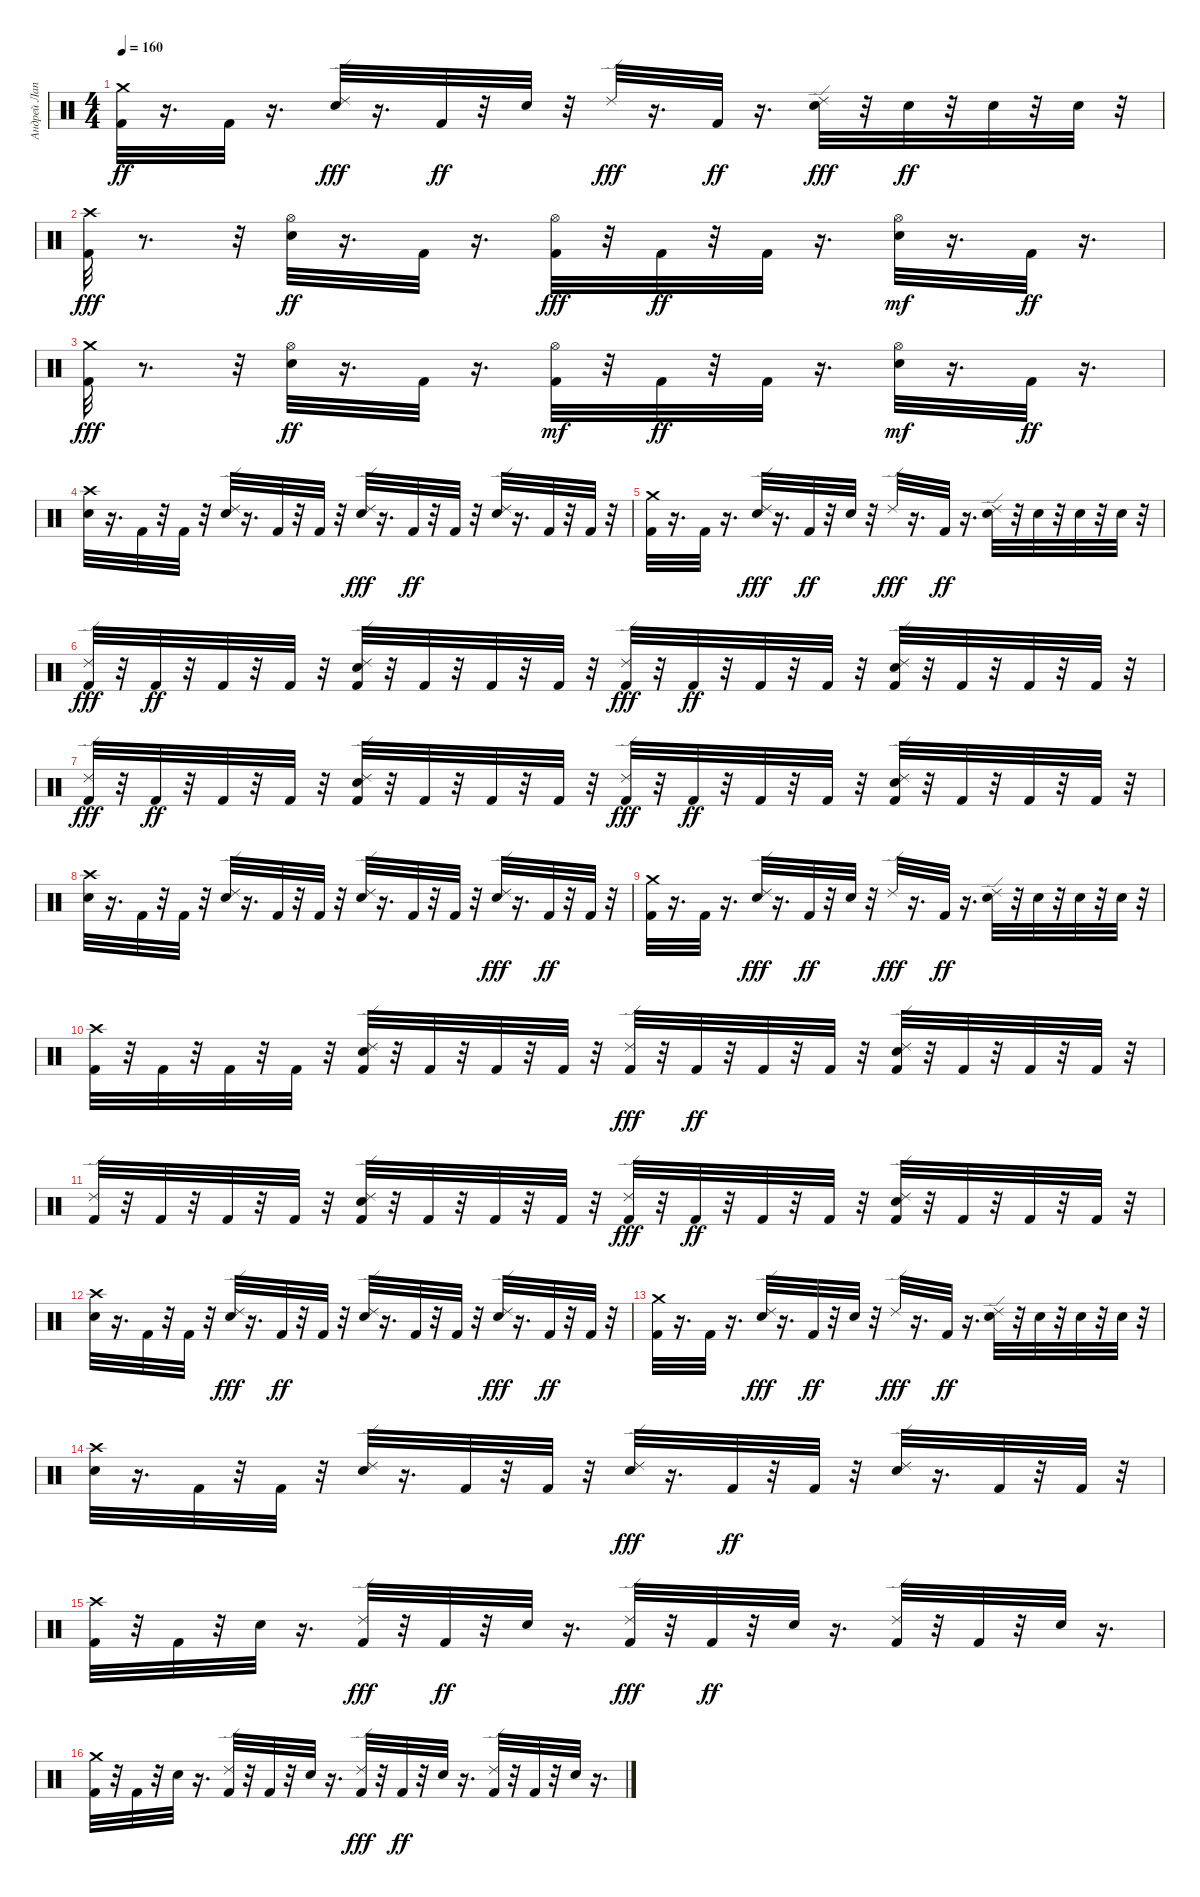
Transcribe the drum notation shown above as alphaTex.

\track ("Андрей Лаптев" "Андрей Лап") {instrument percussion}
\staff {score}
\articulation defaults
\ts (4 4)
\tempo 160
\clef neutral
\ks c
("Kick (hit) 2" "Crash medium (hit)").32{dy ff} r.16{d} "Kick (hit) 2".32 r.16{d} ("Electric Snare (hit)" "Ride (edge) 2").32{dy fff} r.16{d} "Kick (hit) 2".32{dy ff} r.32 "Electric Snare (hit)".32 r.32 "Ride (edge) 2".32{dy fff} r.16{d} "Kick (hit) 2".32{dy ff} r.16{d} ("Electric Snare (hit)" "Ride (edge) 2").32{dy fff} r.32 "Electric Snare (hit)".32{dy ff} r.32 "Electric Snare (hit)".32 r.32 "Electric Snare (hit)".32 r.32 |
("Crash high (hit)" "Kick (hit) 2").32{dy fff} r.8{d} r.32 ("Hi-Hat (open)" "Electric Snare (hit)").32{dy ff} r.16{d} "Kick (hit) 2".32 r.16{d} ("Hi-Hat (open)" "Kick (hit) 2").32{dy fff} r.32 "Kick (hit) 2".32{dy ff} r.32 "Kick (hit) 2".32 r.16{d} ("Electric Snare (hit)" "Hi-Hat (open)").32{dy mf} r.16{d} "Kick (hit) 2".32{dy ff} r.16{d} |
("Kick (hit) 2" "Crash medium (hit)").32{dy fff} r.8{d} r.32 ("Hi-Hat (open)" "Electric Snare (hit)").32{dy ff} r.16{d} "Kick (hit) 2".32 r.16{d} ("Kick (hit) 2" "Hi-Hat (open)").32{dy mf} r.32 "Kick (hit) 2".32{dy ff} r.32 "Kick (hit) 2".32 r.16{d} ("Electric Snare (hit)" "Hi-Hat (open)").32{dy mf} r.16{d} "Kick (hit) 2".32{dy ff} r.16{d} |
("Crash high (hit)" "Electric Snare (hit)").32 r.16{d} "Kick (hit) 2".32 r.32 "Kick (hit) 2".32 r.32 ("Ride (edge) 2" "Electric Snare (hit)").32 r.16{d} "Kick (hit) 2".32 r.32 "Kick (hit) 2".32 r.32 ("Electric Snare (hit)" "Ride (edge) 2").32{dy fff} r.16{d} "Kick (hit) 2".32{dy ff} r.32 "Kick (hit) 2".32 r.32 ("Ride (edge) 2" "Electric Snare (hit)").32 r.16{d} "Kick (hit) 2".32 r.32 "Kick (hit) 2".32 r.32 |
("Kick (hit) 2" "Crash medium (hit)").32 r.16{d} "Kick (hit) 2".32 r.16{d} ("Electric Snare (hit)" "Ride (edge) 2").32{dy fff} r.16{d} "Kick (hit) 2".32{dy ff} r.32 "Electric Snare (hit)".32 r.32 "Ride (edge) 2".32{dy fff} r.16{d} "Kick (hit) 2".32{dy ff} r.16{d} ("Ride (edge) 2" "Electric Snare (hit)").32 r.32 "Electric Snare (hit)".32 r.32 "Electric Snare (hit)".32 r.32 "Electric Snare (hit)".32 r.32 |
("Kick (hit) 2" "Ride (edge) 2").32{dy fff} r.32 "Kick (hit) 2".32{dy ff} r.32 "Kick (hit) 2".32 r.32 "Kick (hit) 2".32 r.32 ("Ride (edge) 2" "Electric Snare (hit)" "Kick (hit) 2").32 r.32 "Kick (hit) 2".32 r.32 "Kick (hit) 2".32 r.32 "Kick (hit) 2".32 r.32 ("Kick (hit) 2" "Ride (edge) 2").32{dy fff} r.32 "Kick (hit) 2".32{dy ff} r.32 "Kick (hit) 2".32 r.32 "Kick (hit) 2".32 r.32 ("Electric Snare (hit)" "Ride (edge) 2" "Kick (hit) 2").32 r.32 "Kick (hit) 2".32 r.32 "Kick (hit) 2".32 r.32 "Kick (hit) 2".32 r.32 |
("Kick (hit) 2" "Ride (edge) 2").32{dy fff} r.32 "Kick (hit) 2".32{dy ff} r.32 "Kick (hit) 2".32 r.32 "Kick (hit) 2".32 r.32 ("Electric Snare (hit)" "Ride (edge) 2" "Kick (hit) 2").32 r.32 "Kick (hit) 2".32 r.32 "Kick (hit) 2".32 r.32 "Kick (hit) 2".32 r.32 ("Kick (hit) 2" "Ride (edge) 2").32{dy fff} r.32 "Kick (hit) 2".32{dy ff} r.32 "Kick (hit) 2".32 r.32 "Kick (hit) 2".32 r.32 ("Electric Snare (hit)" "Ride (edge) 2" "Kick (hit) 2").32 r.32 "Kick (hit) 2".32 r.32 "Kick (hit) 2".32 r.32 "Kick (hit) 2".32 r.32 |
("Crash high (hit)" "Electric Snare (hit)").32 r.16{d} "Kick (hit) 2".32 r.32 "Kick (hit) 2".32 r.32 ("Ride (edge) 2" "Electric Snare (hit)").32 r.16{d} "Kick (hit) 2".32 r.32 "Kick (hit) 2".32 r.32 ("Ride (edge) 2" "Electric Snare (hit)").32 r.16{d} "Kick (hit) 2".32 r.32 "Kick (hit) 2".32 r.32 ("Electric Snare (hit)" "Ride (edge) 2").32{dy fff} r.16{d} "Kick (hit) 2".32{dy ff} r.32 "Kick (hit) 2".32 r.32 |
("Kick (hit) 2" "Crash medium (hit)").32 r.16{d} "Kick (hit) 2".32 r.16{d} ("Electric Snare (hit)" "Ride (edge) 2").32{dy fff} r.16{d} "Kick (hit) 2".32{dy ff} r.32 "Electric Snare (hit)".32 r.32 "Ride (edge) 2".32{dy fff} r.16{d} "Kick (hit) 2".32{dy ff} r.16{d} ("Ride (edge) 2" "Electric Snare (hit)").32 r.32 "Electric Snare (hit)".32 r.32 "Electric Snare (hit)".32 r.32 "Electric Snare (hit)".32 r.32 |
("Kick (hit) 2" "Crash high (hit)").32 r.32 "Kick (hit) 2".32 r.32 "Kick (hit) 2".32 r.32 "Kick (hit) 2".32 r.32 ("Ride (edge) 2" "Electric Snare (hit)" "Kick (hit) 2").32 r.32 "Kick (hit) 2".32 r.32 "Kick (hit) 2".32 r.32 "Kick (hit) 2".32 r.32 ("Kick (hit) 2" "Ride (edge) 2").32{dy fff} r.32 "Kick (hit) 2".32{dy ff} r.32 "Kick (hit) 2".32 r.32 "Kick (hit) 2".32 r.32 ("Electric Snare (hit)" "Ride (edge) 2" "Kick (hit) 2").32 r.32 "Kick (hit) 2".32 r.32 "Kick (hit) 2".32 r.32 "Kick (hit) 2".32 r.32 |
("Ride (edge) 2" "Kick (hit) 2").32 r.32 "Kick (hit) 2".32 r.32 "Kick (hit) 2".32 r.32 "Kick (hit) 2".32 r.32 ("Electric Snare (hit)" "Ride (edge) 2" "Kick (hit) 2").32 r.32 "Kick (hit) 2".32 r.32 "Kick (hit) 2".32 r.32 "Kick (hit) 2".32 r.32 ("Kick (hit) 2" "Ride (edge) 2").32{dy fff} r.32 "Kick (hit) 2".32{dy ff} r.32 "Kick (hit) 2".32 r.32 "Kick (hit) 2".32 r.32 ("Ride (edge) 2" "Electric Snare (hit)" "Kick (hit) 2").32 r.32 "Kick (hit) 2".32 r.32 "Kick (hit) 2".32 r.32 "Kick (hit) 2".32 r.32 |
("Crash high (hit)" "Electric Snare (hit)").32 r.16{d} "Kick (hit) 2".32 r.32 "Kick (hit) 2".32 r.32 ("Electric Snare (hit)" "Ride (edge) 2").32{dy fff} r.16{d} "Kick (hit) 2".32{dy ff} r.32 "Kick (hit) 2".32 r.32 ("Ride (edge) 2" "Electric Snare (hit)").32 r.16{d} "Kick (hit) 2".32 r.32 "Kick (hit) 2".32 r.32 ("Electric Snare (hit)" "Ride (edge) 2").32{dy fff} r.16{d} "Kick (hit) 2".32{dy ff} r.32 "Kick (hit) 2".32 r.32 |
("Crash medium (hit)" "Kick (hit) 2").32 r.16{d} "Kick (hit) 2".32 r.16{d} ("Electric Snare (hit)" "Ride (edge) 2").32{dy fff} r.16{d} "Kick (hit) 2".32{dy ff} r.32 "Electric Snare (hit)".32 r.32 "Ride (edge) 2".32{dy fff} r.16{d} "Kick (hit) 2".32{dy ff} r.16{d} ("Ride (edge) 2" "Electric Snare (hit)").32 r.32 "Electric Snare (hit)".32 r.32 "Electric Snare (hit)".32 r.32 "Electric Snare (hit)".32 r.32 |
("Electric Snare (hit)" "Crash high (hit)").32 r.16{d} "Kick (hit) 2".32 r.32 "Kick (hit) 2".32 r.32 ("Ride (edge) 2" "Electric Snare (hit)").32 r.16{d} "Kick (hit) 2".32 r.32 "Kick (hit) 2".32 r.32 ("Electric Snare (hit)" "Ride (edge) 2").32{dy fff} r.16{d} "Kick (hit) 2".32{dy ff} r.32 "Kick (hit) 2".32 r.32 ("Ride (edge) 2" "Electric Snare (hit)").32 r.16{d} "Kick (hit) 2".32 r.32 "Kick (hit) 2".32 r.32 |
("Kick (hit) 2" "Crash high (hit)").32 r.32 "Kick (hit) 2".32 r.32 "Electric Snare (hit)".32 r.16{d} ("Kick (hit) 2" "Ride (edge) 2").32{dy fff} r.32 "Kick (hit) 2".32{dy ff} r.32 "Electric Snare (hit)".32 r.16{d} ("Kick (hit) 2" "Ride (edge) 2").32{dy fff} r.32 "Kick (hit) 2".32{dy ff} r.32 "Electric Snare (hit)".32 r.16{d} ("Ride (edge) 2" "Kick (hit) 2").32 r.32 "Kick (hit) 2".32 r.32 "Electric Snare (hit)".32 r.16{d} |
("Crash medium (hit)" "Kick (hit) 2").32 r.32 "Kick (hit) 2".32 r.32 "Electric Snare (hit)".32 r.16{d} ("Ride (edge) 2" "Kick (hit) 2").32 r.32 "Kick (hit) 2".32 r.32 "Electric Snare (hit)".32 r.16{d} ("Kick (hit) 2" "Ride (edge) 2").32{dy fff} r.32 "Kick (hit) 2".32{dy ff} r.32 "Electric Snare (hit)".32 r.16{d} ("Ride (edge) 2" "Kick (hit) 2").32 r.32 "Kick (hit) 2".32 r.32 "Electric Snare (hit)".32 r.16{d}
